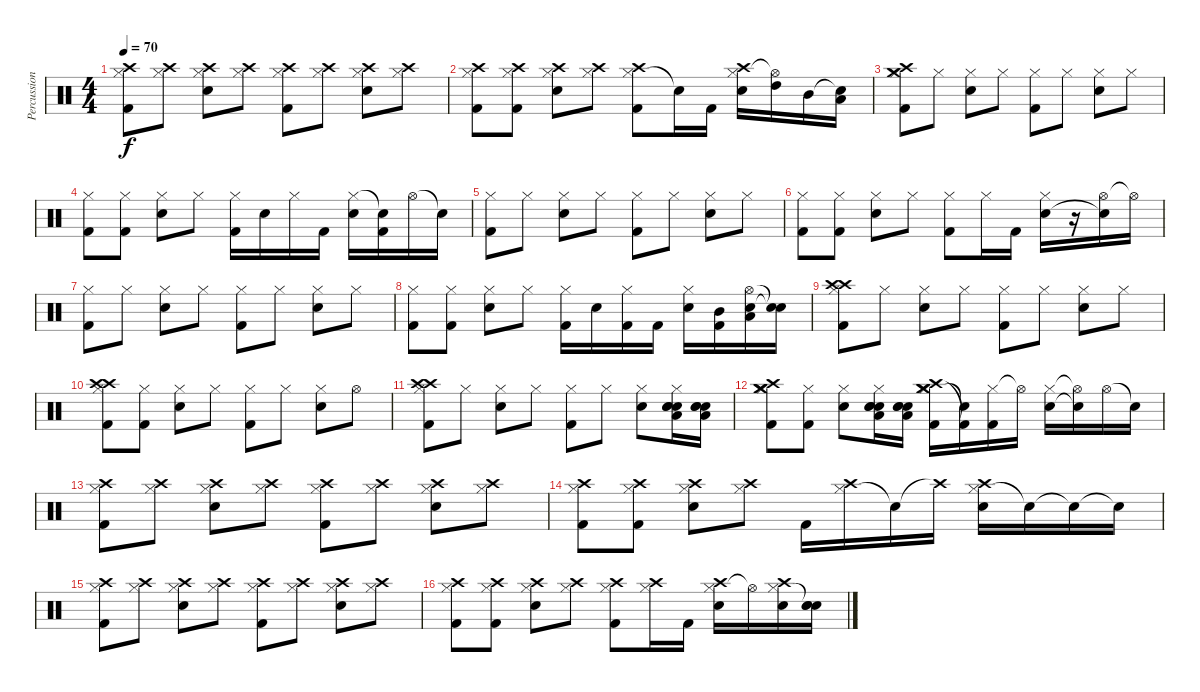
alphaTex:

\track ("Percussion" "Percussion") {instrument percussion}
\staff {score}
\articulation defaults
\ts (4 4)
\tempo 70
\clef neutral
\ks c
("Hi-Hat (closed)" "Crash high (hit)" "Kick (hit) 2").8{dy f} ("Hi-Hat (closed)" "Crash high (hit)").8 ("Hi-Hat (closed)" "Snare (hit) 2" "Crash high (hit)").8 ("Hi-Hat (closed)" "Crash high (hit)").8 ("Hi-Hat (closed)" "Crash high (hit)" "Kick (hit) 2").8 ("Hi-Hat (closed)" "Crash high (hit)").8 ("Hi-Hat (closed)" "Snare (hit) 2" "Crash high (hit)").8 ("Hi-Hat (closed)" "Crash high (hit)").8 |
("Hi-Hat (closed)" "Crash high (hit)" "Kick (hit) 2").8 ("Hi-Hat (closed)" "Crash high (hit)" "Kick (hit) 2").8 ("Hi-Hat (closed)" "Snare (hit) 2" "Crash high (hit)").8 ("Hi-Hat (closed)" "Crash high (hit)").8 ("Hi-Hat (closed)" "Crash high (hit)" "Kick (hit) 2").8 "Snare (hit)"{t}.16 "Kick (hit) 2".16 ("Hi-Hat (closed)" "Snare (hit) 2" "Crash high (hit)").16 ("Hi-Hat (open)"{t} "High Tom (hit)").16 "Mid Tom (hit)".16 ("Snare (hit)"{t} "Low Tom (hit)").16 |
("Hi-Hat (closed)" "Crash high (hit)" "Crash medium (hit)" "Kick (hit) 2").8 "Hi-Hat (closed)".8 ("Hi-Hat (closed)" "Snare (hit) 2").8 "Hi-Hat (closed)".8 ("Hi-Hat (closed)" "Kick (hit) 2").8 "Hi-Hat (closed)".8 ("Hi-Hat (closed)" "Snare (hit) 2").8 "Hi-Hat (closed)".8 |
("Hi-Hat (closed)" "Kick (hit) 2").8 ("Hi-Hat (closed)" "Kick (hit) 2").8 ("Hi-Hat (closed)" "Snare (hit) 2").8 "Hi-Hat (closed)".8 ("Hi-Hat (closed)" "Kick (hit) 2").16 "Snare (hit) 2".16 "Hi-Hat (closed)".16 "Kick (hit) 2".16 ("Hi-Hat (closed)" "Snare (hit) 2").16 ("Snare (hit)"{t} "Kick (hit) 2").16 "Hi-Hat (open)".16 "Snare (hit)"{t}.16 |
("Hi-Hat (closed)" "Kick (hit) 2").8 "Hi-Hat (closed)".8 ("Hi-Hat (closed)" "Snare (hit) 2").8 "Hi-Hat (closed)".8 ("Hi-Hat (closed)" "Kick (hit) 2").8 "Hi-Hat (closed)".8 ("Hi-Hat (closed)" "Snare (hit) 2").8 "Hi-Hat (closed)".8 |
("Hi-Hat (closed)" "Kick (hit) 2").8 ("Hi-Hat (closed)" "Kick (hit) 2").8 ("Hi-Hat (closed)" "Snare (hit) 2").8 "Hi-Hat (closed)".8 ("Hi-Hat (closed)" "Kick (hit) 2").8 "Hi-Hat (closed)".16 "Kick (hit) 2".16 ("Hi-Hat (closed)" "Snare (hit) 2").16 r.16 ("Hi-Hat (open)" "Snare (hit)"{t}).16 "Hi-Hat (open)"{t}.16 |
("Hi-Hat (closed)" "Kick (hit) 2").8 "Hi-Hat (closed)".8 ("Hi-Hat (closed)" "Snare (hit) 2").8 "Hi-Hat (closed)".8 ("Hi-Hat (closed)" "Kick (hit) 2").8 "Hi-Hat (closed)".8 ("Hi-Hat (closed)" "Snare (hit) 2").8 "Hi-Hat (closed)".8 |
("Hi-Hat (closed)" "Kick (hit) 2").8 ("Hi-Hat (closed)" "Kick (hit) 2").8 ("Hi-Hat (closed)" "Snare (hit) 2").8 "Hi-Hat (closed)".8 ("Hi-Hat (closed)" "Kick (hit) 2").16 "Snare (hit) 2".16 ("Hi-Hat (closed)" "Kick (hit) 2").16 "Kick (hit) 2".16 ("Hi-Hat (closed)" "Snare (hit) 2").16 ("Mid Tom (hit)" "Kick (hit) 2").16 ("Hi-Hat (open)" "Snare (hit) 2" "Low Tom (hit)").16 ("Snare (hit)"{t} "Snare (hit)"{t}).16 |
("Hi-Hat (closed)" "Crash high (hit)" "Crash high (hit)" "Kick (hit) 2").8 "Hi-Hat (closed)".8 ("Hi-Hat (closed)" "Snare (hit) 2").8 "Hi-Hat (closed)".8 ("Hi-Hat (closed)" "Kick (hit) 2").8 "Hi-Hat (closed)".8 ("Hi-Hat (closed)" "Snare (hit) 2").8 "Hi-Hat (closed)".8 |
("Hi-Hat (closed)" "Crash high (hit)" "Crash high (hit)" "Kick (hit) 2").8 ("Hi-Hat (closed)" "Kick (hit) 2").8 ("Hi-Hat (closed)" "Snare (hit) 2").8 "Hi-Hat (closed)".8 ("Hi-Hat (closed)" "Kick (hit) 2").8 "Hi-Hat (closed)".8 ("Hi-Hat (closed)" "Snare (hit) 2").8 "Hi-Hat (open)".8 |
("Hi-Hat (closed)" "Crash high (hit)" "Crash high (hit)" "Kick (hit) 2").8 "Hi-Hat (closed)".8 ("Hi-Hat (closed)" "Snare (hit) 2").8 "Hi-Hat (closed)".8 ("Hi-Hat (closed)" "Kick (hit) 2").8 "Hi-Hat (closed)".8 ("Hi-Hat (closed)" "Snare (hit) 2").8 ("Hi-Hat (closed)" "Snare (hit) 2" "Low Tom (hit)" "Snare (hit) 2" "Snare (hit) 2").16 ("Snare (hit) 2" "Low Tom (hit)" "Snare (hit) 2" "Snare (hit) 2").16 |
("Hi-Hat (closed)" "Crash high (hit)" "Crash medium (hit)" "Crash medium (hit)" "Kick (hit) 2").8 ("Hi-Hat (closed)" "Kick (hit) 2").8 ("Hi-Hat (closed)" "Snare (hit) 2").8 ("Hi-Hat (closed)" "Snare (hit) 2" "Low Tom (hit)" "Snare (hit) 2" "Snare (hit) 2").16 ("Snare (hit) 2" "Low Tom (hit)" "Snare (hit) 2" "Snare (hit) 2").16 ("Hi-Hat (closed)" "Crash high (hit)" "Crash medium (hit)" "Crash medium (hit)" "Kick (hit) 2").16 ("Snare (hit)"{t} "Kick (hit) 2"{t}).16 ("Hi-Hat (closed)" "Kick (hit) 2").16 "Hi-Hat (open)"{t}.16 ("Hi-Hat (closed)" "Snare (hit) 2").16 ("Hi-Hat (open)"{t} "Snare (hit)"{t}).16 "Hi-Hat (open)".16 "Snare (hit)"{t}.16 |
("Hi-Hat (closed)" "Crash high (hit)" "Kick (hit) 2").8 ("Hi-Hat (closed)" "Crash high (hit)").8 ("Hi-Hat (closed)" "Snare (hit) 2" "Crash high (hit)").8 ("Hi-Hat (closed)" "Crash high (hit)").8 ("Hi-Hat (closed)" "Crash high (hit)" "Kick (hit) 2").8 ("Hi-Hat (closed)" "Crash high (hit)").8 ("Hi-Hat (closed)" "Snare (hit) 2" "Crash high (hit)").8 ("Hi-Hat (closed)" "Crash high (hit)").8 |
("Hi-Hat (closed)" "Crash high (hit)" "Kick (hit) 2").8 ("Hi-Hat (closed)" "Crash high (hit)" "Kick (hit) 2").8 ("Hi-Hat (closed)" "Snare (hit) 2" "Crash high (hit)").8 ("Hi-Hat (closed)" "Crash high (hit)").8 "Kick (hit) 2".16 ("Hi-Hat (closed)" "Crash high (hit)").16 "Snare (hit) 2"{t}.16 "Crash high (hit)"{t}.16 ("Hi-Hat (closed)" "Crash high (hit)" "Snare (hit) 2").16 "Snare (hit)"{t}.16 "Snare (hit)"{t}.16 "Snare (hit)"{t}.16 |
("Hi-Hat (closed)" "Crash high (hit)" "Kick (hit) 2").8 ("Hi-Hat (closed)" "Crash high (hit)").8 ("Hi-Hat (closed)" "Snare (hit) 2" "Crash high (hit)").8 ("Hi-Hat (closed)" "Crash high (hit)").8 ("Hi-Hat (closed)" "Crash high (hit)" "Kick (hit) 2").8 ("Hi-Hat (closed)" "Crash high (hit)").8 ("Hi-Hat (closed)" "Snare (hit) 2" "Crash high (hit)").8 ("Hi-Hat (closed)" "Crash high (hit)").8 |
("Hi-Hat (closed)" "Crash high (hit)" "Kick (hit) 2").8 ("Hi-Hat (closed)" "Crash high (hit)" "Kick (hit) 2").8 ("Hi-Hat (closed)" "Snare (hit) 2" "Crash high (hit)").8 ("Hi-Hat (closed)" "Crash high (hit)").8 ("Hi-Hat (closed)" "Crash high (hit)" "Kick (hit) 2").8 ("Hi-Hat (closed)" "Crash high (hit)").16 "Kick (hit) 2".16 ("Hi-Hat (closed)" "Snare (hit) 2" "Crash high (hit)").16 "Hi-Hat (open)"{t}.16 ("Hi-Hat (closed)" "Crash high (hit)" "Snare (hit) 2").16 ("Snare (hit)"{t} "Snare (hit) 2" "Snare (hit) 2").16
